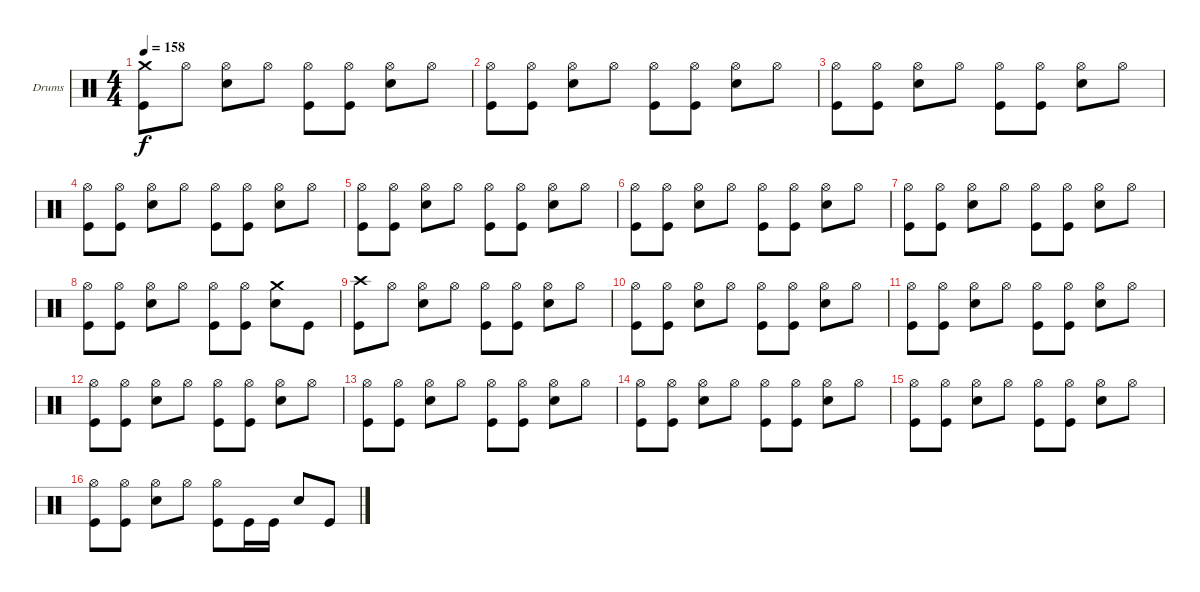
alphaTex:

\bracketExtendMode groupsimilarinstruments
\firstSystemTrackNameOrientation horizontal
\otherSystemsTrackNameOrientation horizontal
\track ("Drumkit" "Drums") {instrument percussion}
\staff {score}
\articulation defaults
\ts (4 4)
\tempo 158
\clef neutral
\ks c
("Crash medium (hit)" "Kick (hit)").8{dy f} "Hi-Hat (open)".8 ("Hi-Hat (open)" "Snare (hit) 2").8 "Hi-Hat (open)".8 ("Hi-Hat (open)" "Kick (hit)").8 ("Hi-Hat (open)" "Kick (hit)").8 ("Hi-Hat (open)" "Snare (hit) 2").8 "Hi-Hat (open)".8 |
("Hi-Hat (open)" "Kick (hit)").8 ("Hi-Hat (open)" "Kick (hit)").8 ("Hi-Hat (open)" "Snare (hit) 2").8 "Hi-Hat (open)".8 ("Hi-Hat (open)" "Kick (hit)").8 ("Hi-Hat (open)" "Kick (hit)").8 ("Hi-Hat (open)" "Snare (hit) 2").8 "Hi-Hat (open)".8 |
("Hi-Hat (open)" "Kick (hit)").8 ("Hi-Hat (open)" "Kick (hit)").8 ("Hi-Hat (open)" "Snare (hit) 2").8 "Hi-Hat (open)".8 ("Hi-Hat (open)" "Kick (hit)").8 ("Hi-Hat (open)" "Kick (hit)").8 ("Hi-Hat (open)" "Snare (hit) 2").8 "Hi-Hat (open)".8 |
("Hi-Hat (open)" "Kick (hit)").8 ("Hi-Hat (open)" "Kick (hit)").8 ("Hi-Hat (open)" "Snare (hit) 2").8 "Hi-Hat (open)".8 ("Hi-Hat (open)" "Kick (hit)").8 ("Hi-Hat (open)" "Kick (hit)").8 ("Hi-Hat (open)" "Snare (hit) 2").8 "Hi-Hat (open)".8 |
("Hi-Hat (open)" "Kick (hit)").8 ("Hi-Hat (open)" "Kick (hit)").8 ("Hi-Hat (open)" "Snare (hit) 2").8 "Hi-Hat (open)".8 ("Hi-Hat (open)" "Kick (hit)").8 ("Hi-Hat (open)" "Kick (hit)").8 ("Hi-Hat (open)" "Snare (hit) 2").8 "Hi-Hat (open)".8 |
("Hi-Hat (open)" "Kick (hit)").8 ("Hi-Hat (open)" "Kick (hit)").8 ("Hi-Hat (open)" "Snare (hit) 2").8 "Hi-Hat (open)".8 ("Hi-Hat (open)" "Kick (hit)").8 ("Hi-Hat (open)" "Kick (hit)").8 ("Hi-Hat (open)" "Snare (hit) 2").8 "Hi-Hat (open)".8 |
("Hi-Hat (open)" "Kick (hit)").8 ("Hi-Hat (open)" "Kick (hit)").8 ("Hi-Hat (open)" "Snare (hit) 2").8 "Hi-Hat (open)".8 ("Hi-Hat (open)" "Kick (hit)").8 ("Hi-Hat (open)" "Kick (hit)").8 ("Hi-Hat (open)" "Snare (hit) 2").8 "Hi-Hat (open)".8 |
("Hi-Hat (open)" "Kick (hit)").8 ("Hi-Hat (open)" "Kick (hit)").8 ("Hi-Hat (open)" "Snare (hit) 2").8 "Hi-Hat (open)".8 ("Hi-Hat (open)" "Kick (hit)").8 ("Hi-Hat (open)" "Kick (hit)").8 ("Crash medium (hit)" "Snare (hit) 2").8 "Kick (hit)".8 |
("Crash high (hit)" "Kick (hit)").8 "Hi-Hat (open)".8 ("Hi-Hat (open)" "Snare (hit) 2").8 "Hi-Hat (open)".8 ("Hi-Hat (open)" "Kick (hit)").8 ("Hi-Hat (open)" "Kick (hit)").8 ("Hi-Hat (open)" "Snare (hit) 2").8 "Hi-Hat (open)".8 |
("Hi-Hat (open)" "Kick (hit)").8 ("Hi-Hat (open)" "Kick (hit)").8 ("Hi-Hat (open)" "Snare (hit) 2").8 "Hi-Hat (open)".8 ("Hi-Hat (open)" "Kick (hit)").8 ("Hi-Hat (open)" "Kick (hit)").8 ("Hi-Hat (open)" "Snare (hit) 2").8 "Hi-Hat (open)".8 |
("Hi-Hat (open)" "Kick (hit)").8 ("Hi-Hat (open)" "Kick (hit)").8 ("Hi-Hat (open)" "Snare (hit) 2").8 "Hi-Hat (open)".8 ("Hi-Hat (open)" "Kick (hit)").8 ("Hi-Hat (open)" "Kick (hit)").8 ("Hi-Hat (open)" "Snare (hit) 2").8 "Hi-Hat (open)".8 |
("Hi-Hat (open)" "Kick (hit)").8 ("Hi-Hat (open)" "Kick (hit)").8 ("Hi-Hat (open)" "Snare (hit) 2").8 "Hi-Hat (open)".8 ("Hi-Hat (open)" "Kick (hit)").8 ("Hi-Hat (open)" "Kick (hit)").8 ("Hi-Hat (open)" "Snare (hit) 2").8 "Hi-Hat (open)".8 |
("Hi-Hat (open)" "Kick (hit)").8 ("Hi-Hat (open)" "Kick (hit)").8 ("Hi-Hat (open)" "Snare (hit) 2").8 "Hi-Hat (open)".8 ("Hi-Hat (open)" "Kick (hit)").8 ("Hi-Hat (open)" "Kick (hit)").8 ("Hi-Hat (open)" "Snare (hit) 2").8 "Hi-Hat (open)".8 |
("Hi-Hat (open)" "Kick (hit)").8 ("Hi-Hat (open)" "Kick (hit)").8 ("Hi-Hat (open)" "Snare (hit) 2").8 "Hi-Hat (open)".8 ("Hi-Hat (open)" "Kick (hit)").8 ("Hi-Hat (open)" "Kick (hit)").8 ("Hi-Hat (open)" "Snare (hit) 2").8 "Hi-Hat (open)".8 |
("Hi-Hat (open)" "Kick (hit)").8 ("Hi-Hat (open)" "Kick (hit)").8 ("Hi-Hat (open)" "Snare (hit) 2").8 "Hi-Hat (open)".8 ("Hi-Hat (open)" "Kick (hit)").8 ("Hi-Hat (open)" "Kick (hit)").8 ("Hi-Hat (open)" "Snare (hit) 2").8 "Hi-Hat (open)".8 |
("Hi-Hat (open)" "Kick (hit)").8 ("Hi-Hat (open)" "Kick (hit)").8 ("Hi-Hat (open)" "Snare (hit) 2").8 "Hi-Hat (open)".8 ("Hi-Hat (open)" "Kick (hit)").8 "Kick (hit)".16 "Kick (hit)".16 "Snare (hit) 2".8 "Kick (hit)".8
